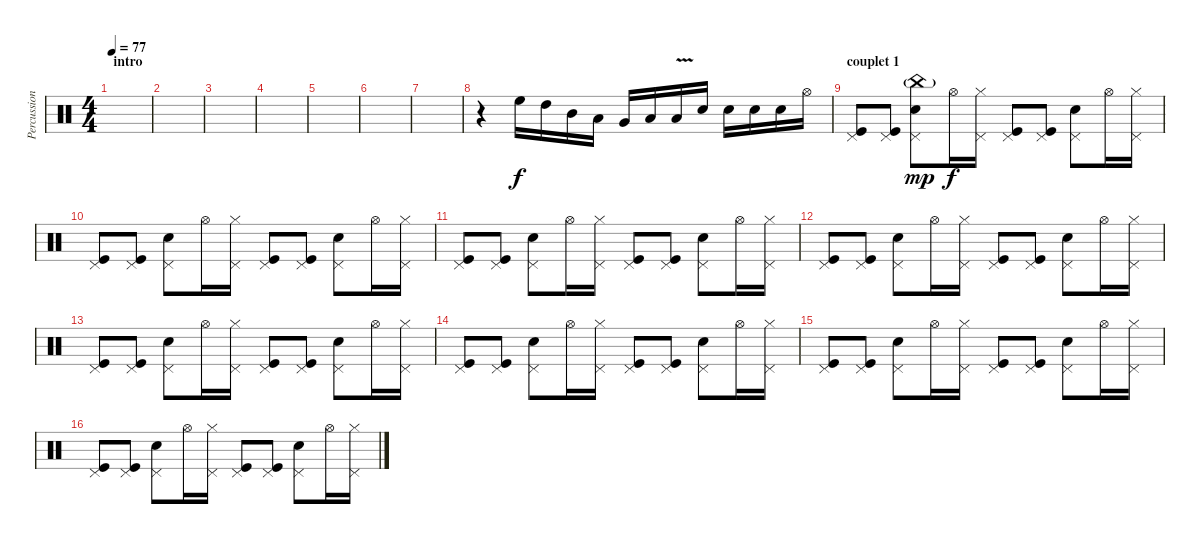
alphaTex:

\track ("Percussions" "Percussion") {instrument percussion}
\staff {score}
\articulation defaults
\ts (4 4)
\section ("" "intro")
\tempo 77
\clef neutral
\ks c
|
|
|
|
|
|
|
r.4{volume 11} "High Floor Tom (hit)".16 "High Tom (hit)".16 "Mid Tom (hit)".16 "Low Tom (hit)".16 "Very Low Tom (hit)".16 "Low Floor Tom (hit)".16 "Low Floor Tom (hit)"{v}.16 "Electric Snare (hit)".16 "Electric Snare (hit)".16 "Electric Snare (hit)".16 "Electric Snare (hit)".16 "Hi-Hat (open)".16 |
\section ("" "couplet 1")
("Pedal Hi-Hat (hit)" "Kick (hit)").8{volume 6} ("Pedal Hi-Hat (hit)" "Kick (hit)").8 ("China (hit)"{g} "Pedal Hi-Hat (hit)" "Electric Snare (hit)").8{dy mp} "Hi-Hat (open)".16{dy f} ("Hi-Hat (closed)" "Pedal Hi-Hat (hit)").16 ("Pedal Hi-Hat (hit)" "Kick (hit)").8 ("Pedal Hi-Hat (hit)" "Kick (hit)").8 ("Pedal Hi-Hat (hit)" "Electric Snare (hit)").8 "Hi-Hat (open)".16 ("Hi-Hat (closed)" "Pedal Hi-Hat (hit)").16 |
("Pedal Hi-Hat (hit)" "Kick (hit)").8 ("Pedal Hi-Hat (hit)" "Kick (hit)").8 ("Pedal Hi-Hat (hit)" "Electric Snare (hit)").8 "Hi-Hat (open)".16 ("Hi-Hat (closed)" "Pedal Hi-Hat (hit)").16 ("Pedal Hi-Hat (hit)" "Kick (hit)").8 ("Pedal Hi-Hat (hit)" "Kick (hit)").8 ("Pedal Hi-Hat (hit)" "Electric Snare (hit)").8 "Hi-Hat (open)".16 ("Hi-Hat (closed)" "Pedal Hi-Hat (hit)").16 |
("Pedal Hi-Hat (hit)" "Kick (hit)").8 ("Pedal Hi-Hat (hit)" "Kick (hit)").8 ("Pedal Hi-Hat (hit)" "Electric Snare (hit)").8 "Hi-Hat (open)".16 ("Hi-Hat (closed)" "Pedal Hi-Hat (hit)").16 ("Pedal Hi-Hat (hit)" "Kick (hit)").8 ("Pedal Hi-Hat (hit)" "Kick (hit)").8 ("Pedal Hi-Hat (hit)" "Electric Snare (hit)").8 "Hi-Hat (open)".16 ("Hi-Hat (closed)" "Pedal Hi-Hat (hit)").16 |
("Pedal Hi-Hat (hit)" "Kick (hit)").8 ("Pedal Hi-Hat (hit)" "Kick (hit)").8 ("Pedal Hi-Hat (hit)" "Electric Snare (hit)").8 "Hi-Hat (open)".16 ("Hi-Hat (closed)" "Pedal Hi-Hat (hit)").16 ("Pedal Hi-Hat (hit)" "Kick (hit)").8 ("Pedal Hi-Hat (hit)" "Kick (hit)").8 ("Pedal Hi-Hat (hit)" "Electric Snare (hit)").8 "Hi-Hat (open)".16 ("Hi-Hat (closed)" "Pedal Hi-Hat (hit)").16 |
("Pedal Hi-Hat (hit)" "Kick (hit)").8 ("Pedal Hi-Hat (hit)" "Kick (hit)").8 ("Pedal Hi-Hat (hit)" "Electric Snare (hit)").8 "Hi-Hat (open)".16 ("Hi-Hat (closed)" "Pedal Hi-Hat (hit)").16 ("Pedal Hi-Hat (hit)" "Kick (hit)").8 ("Pedal Hi-Hat (hit)" "Kick (hit)").8 ("Pedal Hi-Hat (hit)" "Electric Snare (hit)").8 "Hi-Hat (open)".16 ("Hi-Hat (closed)" "Pedal Hi-Hat (hit)").16 |
("Pedal Hi-Hat (hit)" "Kick (hit)").8 ("Pedal Hi-Hat (hit)" "Kick (hit)").8 ("Pedal Hi-Hat (hit)" "Electric Snare (hit)").8 "Hi-Hat (open)".16 ("Hi-Hat (closed)" "Pedal Hi-Hat (hit)").16 ("Pedal Hi-Hat (hit)" "Kick (hit)").8 ("Pedal Hi-Hat (hit)" "Kick (hit)").8 ("Pedal Hi-Hat (hit)" "Electric Snare (hit)").8 "Hi-Hat (open)".16 ("Hi-Hat (closed)" "Pedal Hi-Hat (hit)").16 |
("Pedal Hi-Hat (hit)" "Kick (hit)").8 ("Pedal Hi-Hat (hit)" "Kick (hit)").8 ("Pedal Hi-Hat (hit)" "Electric Snare (hit)").8 "Hi-Hat (open)".16 ("Hi-Hat (closed)" "Pedal Hi-Hat (hit)").16 ("Pedal Hi-Hat (hit)" "Kick (hit)").8 ("Pedal Hi-Hat (hit)" "Kick (hit)").8 ("Pedal Hi-Hat (hit)" "Electric Snare (hit)").8 "Hi-Hat (open)".16 ("Hi-Hat (closed)" "Pedal Hi-Hat (hit)").16 |
("Pedal Hi-Hat (hit)" "Kick (hit)").8 ("Pedal Hi-Hat (hit)" "Kick (hit)").8 ("Pedal Hi-Hat (hit)" "Electric Snare (hit)").8 "Hi-Hat (open)".16 ("Hi-Hat (closed)" "Pedal Hi-Hat (hit)").16 ("Pedal Hi-Hat (hit)" "Kick (hit)").8 ("Pedal Hi-Hat (hit)" "Kick (hit)").8 ("Pedal Hi-Hat (hit)" "Electric Snare (hit)").8 "Hi-Hat (open)".16 ("Hi-Hat (closed)" "Pedal Hi-Hat (hit)").16
